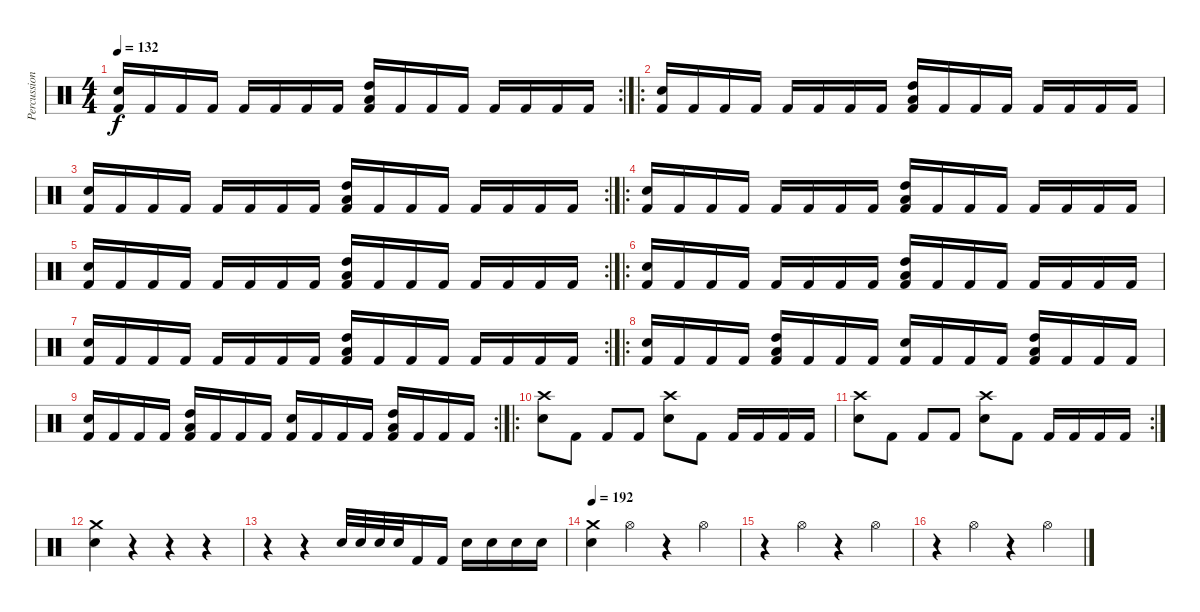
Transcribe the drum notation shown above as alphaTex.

\track ("Percussion" "Percussion") {instrument percussion}
\staff {score}
\articulation defaults
\rc 2
\ts (4 4)
\tempo 132
\clef neutral
\ks c
("Kick (hit) 2" "Electric Snare (hit)").16{dy f} "Kick (hit) 2".16 "Kick (hit) 2".16 "Kick (hit) 2".16 "Kick (hit) 2".16 "Kick (hit) 2".16 "Kick (hit) 2".16 "Kick (hit) 2".16 ("Kick (hit) 2" "Low Tom (hit)" "High Tom (hit)").16 "Kick (hit) 2".16 "Kick (hit) 2".16 "Kick (hit) 2".16 "Kick (hit) 2".16 "Kick (hit) 2".16 "Kick (hit) 2".16 "Kick (hit) 2".16 |
\ro
("Kick (hit) 2" "Electric Snare (hit)").16 "Kick (hit) 2".16 "Kick (hit) 2".16 "Kick (hit) 2".16 "Kick (hit) 2".16 "Kick (hit) 2".16 "Kick (hit) 2".16 "Kick (hit) 2".16 ("Kick (hit) 2" "Low Tom (hit)" "High Tom (hit)").16 "Kick (hit) 2".16 "Kick (hit) 2".16 "Kick (hit) 2".16 "Kick (hit) 2".16 "Kick (hit) 2".16 "Kick (hit) 2".16 "Kick (hit) 2".16 |
\rc 2
("Kick (hit) 2" "Electric Snare (hit)").16 "Kick (hit) 2".16 "Kick (hit) 2".16 "Kick (hit) 2".16 "Kick (hit) 2".16 "Kick (hit) 2".16 "Kick (hit) 2".16 "Kick (hit) 2".16 ("Kick (hit) 2" "Low Tom (hit)" "High Tom (hit)").16 "Kick (hit) 2".16 "Kick (hit) 2".16 "Kick (hit) 2".16 "Kick (hit) 2".16 "Kick (hit) 2".16 "Kick (hit) 2".16 "Kick (hit) 2".16 |
\ro
("Kick (hit) 2" "Electric Snare (hit)").16 "Kick (hit) 2".16 "Kick (hit) 2".16 "Kick (hit) 2".16 "Kick (hit) 2".16 "Kick (hit) 2".16 "Kick (hit) 2".16 "Kick (hit) 2".16 ("Kick (hit) 2" "Low Tom (hit)" "High Tom (hit)").16 "Kick (hit) 2".16 "Kick (hit) 2".16 "Kick (hit) 2".16 "Kick (hit) 2".16 "Kick (hit) 2".16 "Kick (hit) 2".16 "Kick (hit) 2".16 |
\rc 2
("Kick (hit) 2" "Electric Snare (hit)").16 "Kick (hit) 2".16 "Kick (hit) 2".16 "Kick (hit) 2".16 "Kick (hit) 2".16 "Kick (hit) 2".16 "Kick (hit) 2".16 "Kick (hit) 2".16 ("Kick (hit) 2" "Low Tom (hit)" "High Tom (hit)").16 "Kick (hit) 2".16 "Kick (hit) 2".16 "Kick (hit) 2".16 "Kick (hit) 2".16 "Kick (hit) 2".16 "Kick (hit) 2".16 "Kick (hit) 2".16 |
\ro
("Kick (hit) 2" "Electric Snare (hit)").16 "Kick (hit) 2".16 "Kick (hit) 2".16 "Kick (hit) 2".16 "Kick (hit) 2".16 "Kick (hit) 2".16 "Kick (hit) 2".16 "Kick (hit) 2".16 ("Kick (hit) 2" "Low Tom (hit)" "High Tom (hit)").16 "Kick (hit) 2".16 "Kick (hit) 2".16 "Kick (hit) 2".16 "Kick (hit) 2".16 "Kick (hit) 2".16 "Kick (hit) 2".16 "Kick (hit) 2".16 |
\rc 2
("Kick (hit) 2" "Electric Snare (hit)").16 "Kick (hit) 2".16 "Kick (hit) 2".16 "Kick (hit) 2".16 "Kick (hit) 2".16 "Kick (hit) 2".16 "Kick (hit) 2".16 "Kick (hit) 2".16 ("Kick (hit) 2" "Low Tom (hit)" "High Tom (hit)").16 "Kick (hit) 2".16 "Kick (hit) 2".16 "Kick (hit) 2".16 "Kick (hit) 2".16 "Kick (hit) 2".16 "Kick (hit) 2".16 "Kick (hit) 2".16 |
\ro
("Kick (hit) 2" "Electric Snare (hit)").16 "Kick (hit) 2".16 "Kick (hit) 2".16 "Kick (hit) 2".16 ("Kick (hit) 2" "Low Tom (hit)" "High Tom (hit)").16 "Kick (hit) 2".16 "Kick (hit) 2".16 "Kick (hit) 2".16 ("Kick (hit) 2" "Electric Snare (hit)").16 "Kick (hit) 2".16 "Kick (hit) 2".16 "Kick (hit) 2".16 ("Kick (hit) 2" "Low Tom (hit)" "High Tom (hit)").16 "Kick (hit) 2".16 "Kick (hit) 2".16 "Kick (hit) 2".16 |
\rc 2
("Kick (hit) 2" "Electric Snare (hit)").16 "Kick (hit) 2".16 "Kick (hit) 2".16 "Kick (hit) 2".16 ("Kick (hit) 2" "Low Tom (hit)" "High Tom (hit)").16 "Kick (hit) 2".16 "Kick (hit) 2".16 "Kick (hit) 2".16 ("Kick (hit) 2" "Electric Snare (hit)").16 "Kick (hit) 2".16 "Kick (hit) 2".16 "Kick (hit) 2".16 ("Kick (hit) 2" "Low Tom (hit)" "High Tom (hit)").16 "Kick (hit) 2".16 "Kick (hit) 2".16 "Kick (hit) 2".16 |
\ro
("Electric Snare (hit)" "Crash high (hit)").8 "Kick (hit) 2".8 "Kick (hit) 2".8 "Kick (hit) 2".8 ("Electric Snare (hit)" "Crash high (hit)").8 "Kick (hit) 2".8 "Kick (hit) 2".16 "Kick (hit) 2".16 "Kick (hit) 2".16 "Kick (hit) 2".16 |
\rc 2
("Electric Snare (hit)" "Crash high (hit)").8 "Kick (hit) 2".8 "Kick (hit) 2".8 "Kick (hit) 2".8 ("Electric Snare (hit)" "Crash high (hit)").8 "Kick (hit) 2".8 "Kick (hit) 2".16 "Kick (hit) 2".16 "Kick (hit) 2".16 "Kick (hit) 2".16 |
("Electric Snare (hit)" "Crash medium (hit)").4 r.4 r.4 r.4 |
r.4 r.4 "Electric Snare (hit)".32 "Electric Snare (hit)".32 "Electric Snare (hit)".32 "Electric Snare (hit)".32 "Kick (hit) 2".16 "Kick (hit) 2".16 "Electric Snare (hit)".16 "Electric Snare (hit)".16 "Electric Snare (hit)".16 "Electric Snare (hit)".16 |
\tempo 192
("Electric Snare (hit)" "Crash medium (hit)").4 "Hi-Hat (open)".4 r.4 "Hi-Hat (open)".4 |
r.4 "Hi-Hat (open)".4 r.4 "Hi-Hat (open)".4 |
r.4 "Hi-Hat (open)".4 r.4 "Hi-Hat (open)".4
